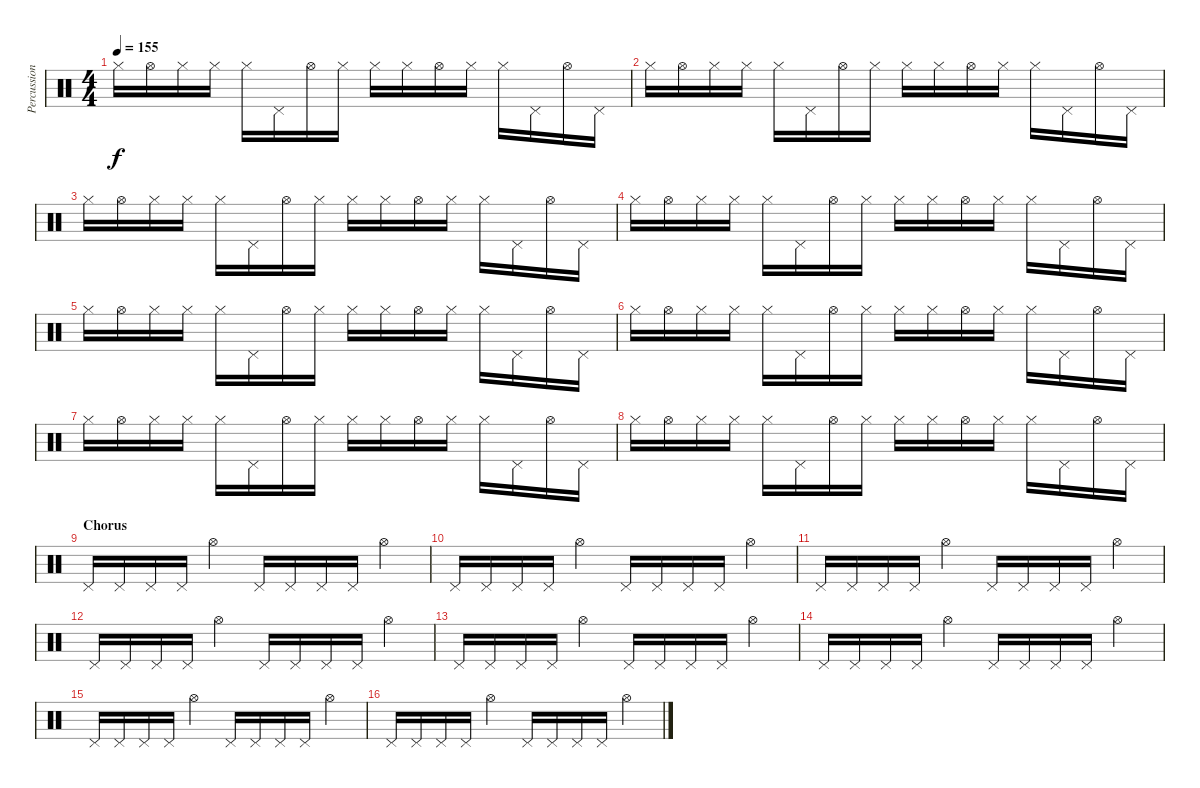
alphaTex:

\track ("Percussion" "Percussion") {instrument percussion}
\staff {score}
\articulation defaults
\ts (4 4)
\tempo 155
\clef neutral
\ks c "Hi-Hat (closed)".16{dy f} "Hi-Hat (open)".16 "Hi-Hat (closed)".16 "Hi-Hat (closed)".16 "Hi-Hat (closed)".16 "Pedal Hi-Hat (hit)".16 "Hi-Hat (open)".16 "Hi-Hat (closed)".16 "Hi-Hat (closed)".16 "Hi-Hat (closed)".16 "Hi-Hat (open)".16 "Hi-Hat (closed)".16 "Hi-Hat (closed)".16 "Pedal Hi-Hat (hit)".16 "Hi-Hat (open)".16 "Pedal Hi-Hat (hit)".16
|
"Hi-Hat (closed)".16 "Hi-Hat (open)".16 "Hi-Hat (closed)".16 "Hi-Hat (closed)".16 "Hi-Hat (closed)".16 "Pedal Hi-Hat (hit)".16 "Hi-Hat (open)".16 "Hi-Hat (closed)".16 "Hi-Hat (closed)".16 "Hi-Hat (closed)".16 "Hi-Hat (open)".16 "Hi-Hat (closed)".16 "Hi-Hat (closed)".16 "Pedal Hi-Hat (hit)".16 "Hi-Hat (open)".16 "Pedal Hi-Hat (hit)".16 |
"Hi-Hat (closed)".16 "Hi-Hat (open)".16 "Hi-Hat (closed)".16 "Hi-Hat (closed)".16 "Hi-Hat (closed)".16 "Pedal Hi-Hat (hit)".16 "Hi-Hat (open)".16 "Hi-Hat (closed)".16 "Hi-Hat (closed)".16 "Hi-Hat (closed)".16 "Hi-Hat (open)".16 "Hi-Hat (closed)".16 "Hi-Hat (closed)".16 "Pedal Hi-Hat (hit)".16 "Hi-Hat (open)".16 "Pedal Hi-Hat (hit)".16 |
"Hi-Hat (closed)".16 "Hi-Hat (open)".16 "Hi-Hat (closed)".16 "Hi-Hat (closed)".16 "Hi-Hat (closed)".16 "Pedal Hi-Hat (hit)".16 "Hi-Hat (open)".16 "Hi-Hat (closed)".16 "Hi-Hat (closed)".16 "Hi-Hat (closed)".16 "Hi-Hat (open)".16 "Hi-Hat (closed)".16 "Hi-Hat (closed)".16 "Pedal Hi-Hat (hit)".16 "Hi-Hat (open)".16 "Pedal Hi-Hat (hit)".16 |
"Hi-Hat (closed)".16 "Hi-Hat (open)".16 "Hi-Hat (closed)".16 "Hi-Hat (closed)".16 "Hi-Hat (closed)".16 "Pedal Hi-Hat (hit)".16 "Hi-Hat (open)".16 "Hi-Hat (closed)".16 "Hi-Hat (closed)".16 "Hi-Hat (closed)".16 "Hi-Hat (open)".16 "Hi-Hat (closed)".16 "Hi-Hat (closed)".16 "Pedal Hi-Hat (hit)".16 "Hi-Hat (open)".16 "Pedal Hi-Hat (hit)".16 |
"Hi-Hat (closed)".16 "Hi-Hat (open)".16 "Hi-Hat (closed)".16 "Hi-Hat (closed)".16 "Hi-Hat (closed)".16 "Pedal Hi-Hat (hit)".16 "Hi-Hat (open)".16 "Hi-Hat (closed)".16 "Hi-Hat (closed)".16 "Hi-Hat (closed)".16 "Hi-Hat (open)".16 "Hi-Hat (closed)".16 "Hi-Hat (closed)".16 "Pedal Hi-Hat (hit)".16 "Hi-Hat (open)".16 "Pedal Hi-Hat (hit)".16 |
"Hi-Hat (closed)".16 "Hi-Hat (open)".16 "Hi-Hat (closed)".16 "Hi-Hat (closed)".16 "Hi-Hat (closed)".16 "Pedal Hi-Hat (hit)".16 "Hi-Hat (open)".16 "Hi-Hat (closed)".16 "Hi-Hat (closed)".16 "Hi-Hat (closed)".16 "Hi-Hat (open)".16 "Hi-Hat (closed)".16 "Hi-Hat (closed)".16 "Pedal Hi-Hat (hit)".16 "Hi-Hat (open)".16 "Pedal Hi-Hat (hit)".16 |
"Hi-Hat (closed)".16 "Hi-Hat (open)".16 "Hi-Hat (closed)".16 "Hi-Hat (closed)".16 "Hi-Hat (closed)".16 "Pedal Hi-Hat (hit)".16 "Hi-Hat (open)".16 "Hi-Hat (closed)".16 "Hi-Hat (closed)".16 "Hi-Hat (closed)".16 "Hi-Hat (open)".16 "Hi-Hat (closed)".16 "Hi-Hat (closed)".16 "Pedal Hi-Hat (hit)".16 "Hi-Hat (open)".16 "Pedal Hi-Hat (hit)".16 |
\section ("" "Chorus")
"Pedal Hi-Hat (hit)".16 "Pedal Hi-Hat (hit)".16 "Pedal Hi-Hat (hit)".16 "Pedal Hi-Hat (hit)".16 "Hi-Hat (open)".4 "Pedal Hi-Hat (hit)".16 "Pedal Hi-Hat (hit)".16 "Pedal Hi-Hat (hit)".16 "Pedal Hi-Hat (hit)".16 "Hi-Hat (open)".4 |
"Pedal Hi-Hat (hit)".16 "Pedal Hi-Hat (hit)".16 "Pedal Hi-Hat (hit)".16 "Pedal Hi-Hat (hit)".16 "Hi-Hat (open)".4 "Pedal Hi-Hat (hit)".16 "Pedal Hi-Hat (hit)".16 "Pedal Hi-Hat (hit)".16 "Pedal Hi-Hat (hit)".16 "Hi-Hat (open)".4 |
"Pedal Hi-Hat (hit)".16 "Pedal Hi-Hat (hit)".16 "Pedal Hi-Hat (hit)".16 "Pedal Hi-Hat (hit)".16 "Hi-Hat (open)".4 "Pedal Hi-Hat (hit)".16 "Pedal Hi-Hat (hit)".16 "Pedal Hi-Hat (hit)".16 "Pedal Hi-Hat (hit)".16 "Hi-Hat (open)".4 |
"Pedal Hi-Hat (hit)".16 "Pedal Hi-Hat (hit)".16 "Pedal Hi-Hat (hit)".16 "Pedal Hi-Hat (hit)".16 "Hi-Hat (open)".4 "Pedal Hi-Hat (hit)".16 "Pedal Hi-Hat (hit)".16 "Pedal Hi-Hat (hit)".16 "Pedal Hi-Hat (hit)".16 "Hi-Hat (open)".4 |
"Pedal Hi-Hat (hit)".16 "Pedal Hi-Hat (hit)".16 "Pedal Hi-Hat (hit)".16 "Pedal Hi-Hat (hit)".16 "Hi-Hat (open)".4 "Pedal Hi-Hat (hit)".16 "Pedal Hi-Hat (hit)".16 "Pedal Hi-Hat (hit)".16 "Pedal Hi-Hat (hit)".16 "Hi-Hat (open)".4 |
"Pedal Hi-Hat (hit)".16 "Pedal Hi-Hat (hit)".16 "Pedal Hi-Hat (hit)".16 "Pedal Hi-Hat (hit)".16 "Hi-Hat (open)".4 "Pedal Hi-Hat (hit)".16 "Pedal Hi-Hat (hit)".16 "Pedal Hi-Hat (hit)".16 "Pedal Hi-Hat (hit)".16 "Hi-Hat (open)".4 |
"Pedal Hi-Hat (hit)".16 "Pedal Hi-Hat (hit)".16 "Pedal Hi-Hat (hit)".16 "Pedal Hi-Hat (hit)".16 "Hi-Hat (open)".4 "Pedal Hi-Hat (hit)".16 "Pedal Hi-Hat (hit)".16 "Pedal Hi-Hat (hit)".16 "Pedal Hi-Hat (hit)".16 "Hi-Hat (open)".4 |
"Pedal Hi-Hat (hit)".16 "Pedal Hi-Hat (hit)".16 "Pedal Hi-Hat (hit)".16 "Pedal Hi-Hat (hit)".16 "Hi-Hat (open)".4 "Pedal Hi-Hat (hit)".16 "Pedal Hi-Hat (hit)".16 "Pedal Hi-Hat (hit)".16 "Pedal Hi-Hat (hit)".16 "Hi-Hat (open)".4
